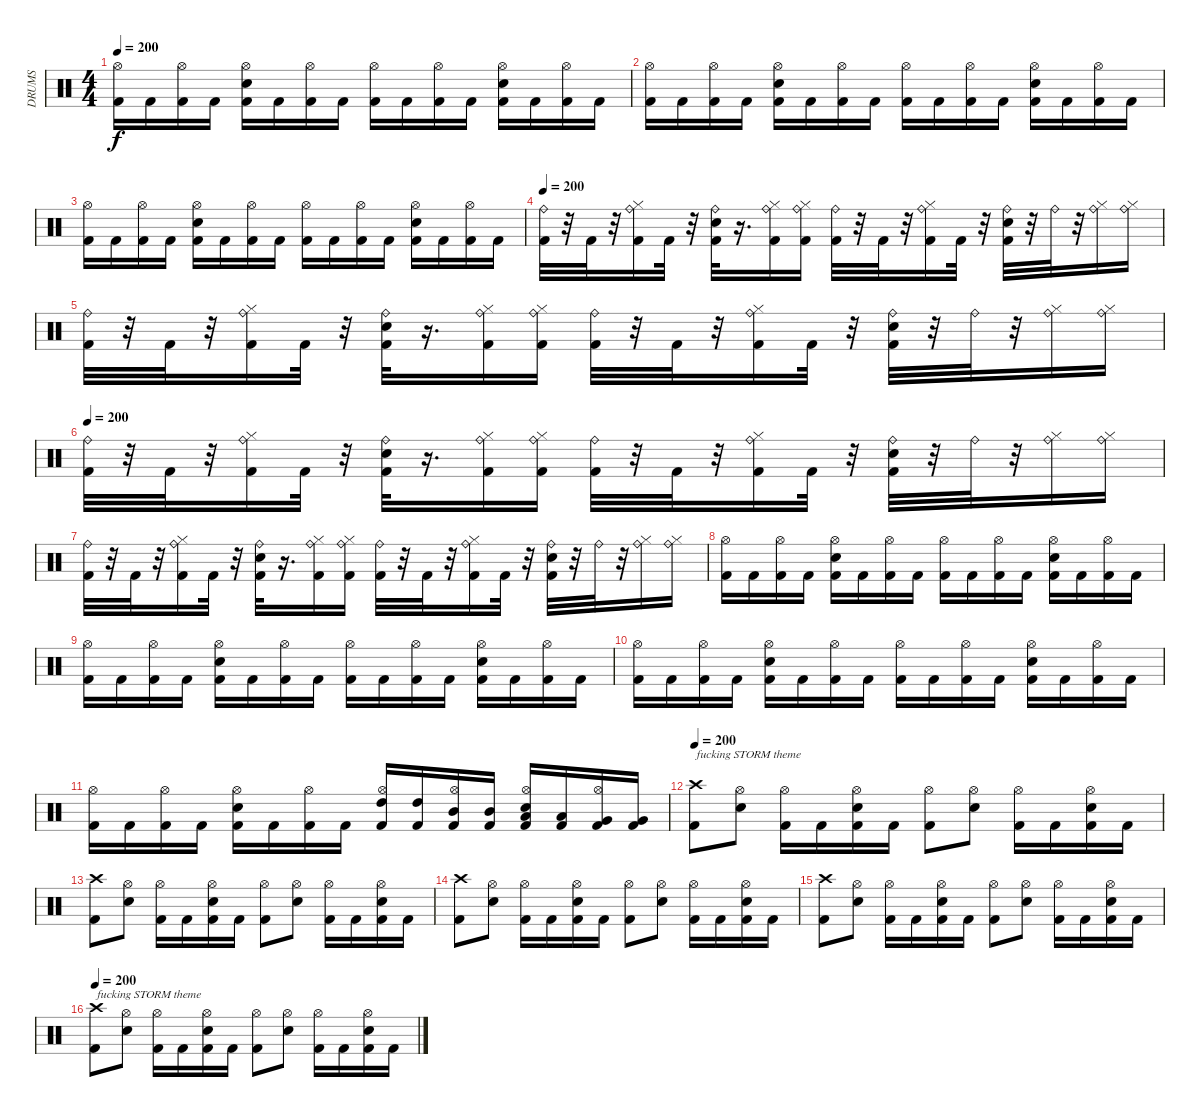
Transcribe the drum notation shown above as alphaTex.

\track ("DRUMS" "DRUMS") {instrument percussion}
\staff {score}
\articulation defaults
\ts (4 4)
\tempo 200
\clef neutral
\ks c
("Kick (hit) 2" "Hi-Hat (open)").16{dy f} "Kick (hit) 2".16 ("Kick (hit) 2" "Hi-Hat (open)").16 "Kick (hit) 2".16 ("Kick (hit) 2" "Snare (hit) 2" "Hi-Hat (open)").16 "Kick (hit) 2".16 ("Kick (hit) 2" "Hi-Hat (open)").16 "Kick (hit) 2".16 ("Kick (hit) 2" "Hi-Hat (open)").16 "Kick (hit) 2".16 ("Kick (hit) 2" "Hi-Hat (open)").16 "Kick (hit) 2".16 ("Kick (hit) 2" "Snare (hit) 2" "Hi-Hat (open)").16 "Kick (hit) 2".16 ("Kick (hit) 2" "Hi-Hat (open)").16 "Kick (hit) 2".16 |
("Kick (hit) 2" "Hi-Hat (open)").16 "Kick (hit) 2".16 ("Kick (hit) 2" "Hi-Hat (open)").16 "Kick (hit) 2".16 ("Kick (hit) 2" "Snare (hit) 2" "Hi-Hat (open)").16 "Kick (hit) 2".16 ("Kick (hit) 2" "Hi-Hat (open)").16 "Kick (hit) 2".16 ("Kick (hit) 2" "Hi-Hat (open)").16 "Kick (hit) 2".16 ("Kick (hit) 2" "Hi-Hat (open)").16 "Kick (hit) 2".16 ("Kick (hit) 2" "Snare (hit) 2" "Hi-Hat (open)").16 "Kick (hit) 2".16 ("Kick (hit) 2" "Hi-Hat (open)").16 "Kick (hit) 2".16 |
("Kick (hit) 2" "Hi-Hat (open)").16 "Kick (hit) 2".16 ("Kick (hit) 2" "Hi-Hat (open)").16 "Kick (hit) 2".16 ("Kick (hit) 2" "Snare (hit) 2" "Hi-Hat (open)").16 "Kick (hit) 2".16 ("Kick (hit) 2" "Hi-Hat (open)").16 "Kick (hit) 2".16 ("Kick (hit) 2" "Hi-Hat (open)").16 "Kick (hit) 2".16 ("Kick (hit) 2" "Hi-Hat (open)").16 "Kick (hit) 2".16 ("Kick (hit) 2" "Snare (hit) 2" "Hi-Hat (open)").16 "Kick (hit) 2".16 ("Kick (hit) 2" "Hi-Hat (open)").16 "Kick (hit) 2".16 |
\tempo 200
("Kick (hit) 2" "Ride (bell)").32 r.32 "Kick (hit) 2".32 r.32 ("Hi-Hat (closed)" "Kick (hit) 2" "Ride (bell)").16 "Kick (hit) 2".32 r.32 ("Snare (hit) 2" "Ride (bell)" "Kick (hit) 2").32 r.16{d} ("Hi-Hat (closed)" "Kick (hit) 2" "Ride (bell)").16 ("Hi-Hat (closed)" "Kick (hit) 2" "Ride (bell)").16 ("Ride (bell)" "Kick (hit) 2").32 r.32 "Kick (hit) 2".32 r.32 ("Hi-Hat (closed)" "Kick (hit) 2" "Ride (bell)").16 "Kick (hit) 2".32 r.32 ("Ride (bell)" "Snare (hit) 2" "Kick (hit) 2").32 r.32 "Ride (bell)".32 r.32 ("Hi-Hat (closed)" "Ride (bell)").16 ("Hi-Hat (closed)" "Ride (bell)").16 |
("Kick (hit) 2" "Ride (bell)").32 r.32 "Kick (hit) 2".32 r.32 ("Hi-Hat (closed)" "Kick (hit) 2" "Ride (bell)").16 "Kick (hit) 2".32 r.32 ("Snare (hit) 2" "Ride (bell)" "Kick (hit) 2").32 r.16{d} ("Hi-Hat (closed)" "Kick (hit) 2" "Ride (bell)").16 ("Hi-Hat (closed)" "Kick (hit) 2" "Ride (bell)").16 ("Ride (bell)" "Kick (hit) 2").32 r.32 "Kick (hit) 2".32 r.32 ("Hi-Hat (closed)" "Kick (hit) 2" "Ride (bell)").16 "Kick (hit) 2".32 r.32 ("Ride (bell)" "Snare (hit) 2" "Kick (hit) 2").32 r.32 "Ride (bell)".32 r.32 ("Hi-Hat (closed)" "Ride (bell)").16 ("Hi-Hat (closed)" "Ride (bell)").16 |
\tempo 200
("Kick (hit) 2" "Ride (bell)").32 r.32 "Kick (hit) 2".32 r.32 ("Hi-Hat (closed)" "Kick (hit) 2" "Ride (bell)").16 "Kick (hit) 2".32 r.32 ("Snare (hit) 2" "Ride (bell)" "Kick (hit) 2").32 r.16{d} ("Hi-Hat (closed)" "Kick (hit) 2" "Ride (bell)").16 ("Hi-Hat (closed)" "Kick (hit) 2" "Ride (bell)").16 ("Ride (bell)" "Kick (hit) 2").32 r.32 "Kick (hit) 2".32 r.32 ("Hi-Hat (closed)" "Kick (hit) 2" "Ride (bell)").16 "Kick (hit) 2".32 r.32 ("Ride (bell)" "Snare (hit) 2" "Kick (hit) 2").32 r.32 "Ride (bell)".32 r.32 ("Hi-Hat (closed)" "Ride (bell)").16 ("Hi-Hat (closed)" "Ride (bell)").16 |
("Kick (hit) 2" "Ride (bell)").32 r.32 "Kick (hit) 2".32 r.32 ("Hi-Hat (closed)" "Kick (hit) 2" "Ride (bell)").16 "Kick (hit) 2".32 r.32 ("Snare (hit) 2" "Ride (bell)" "Kick (hit) 2").32 r.16{d} ("Hi-Hat (closed)" "Kick (hit) 2" "Ride (bell)").16 ("Hi-Hat (closed)" "Kick (hit) 2" "Ride (bell)").16 ("Ride (bell)" "Kick (hit) 2").32 r.32 "Kick (hit) 2".32 r.32 ("Hi-Hat (closed)" "Kick (hit) 2" "Ride (bell)").16 "Kick (hit) 2".32 r.32 ("Ride (bell)" "Snare (hit) 2" "Kick (hit) 2").32 r.32 "Ride (bell)".32 r.32 ("Hi-Hat (closed)" "Ride (bell)").16 ("Hi-Hat (closed)" "Ride (bell)").16 |
("Kick (hit) 2" "Hi-Hat (open)").16 "Kick (hit) 2".16 ("Kick (hit) 2" "Hi-Hat (open)").16 "Kick (hit) 2".16 ("Kick (hit) 2" "Snare (hit) 2" "Hi-Hat (open)").16 "Kick (hit) 2".16 ("Kick (hit) 2" "Hi-Hat (open)").16 "Kick (hit) 2".16 ("Kick (hit) 2" "Hi-Hat (open)").16 "Kick (hit) 2".16 ("Kick (hit) 2" "Hi-Hat (open)").16 "Kick (hit) 2".16 ("Kick (hit) 2" "Snare (hit) 2" "Hi-Hat (open)").16 "Kick (hit) 2".16 ("Kick (hit) 2" "Hi-Hat (open)").16 "Kick (hit) 2".16 |
("Kick (hit) 2" "Hi-Hat (open)").16 "Kick (hit) 2".16 ("Kick (hit) 2" "Hi-Hat (open)").16 "Kick (hit) 2".16 ("Kick (hit) 2" "Snare (hit) 2" "Hi-Hat (open)").16 "Kick (hit) 2".16 ("Kick (hit) 2" "Hi-Hat (open)").16 "Kick (hit) 2".16 ("Kick (hit) 2" "Hi-Hat (open)").16 "Kick (hit) 2".16 ("Kick (hit) 2" "Hi-Hat (open)").16 "Kick (hit) 2".16 ("Kick (hit) 2" "Snare (hit) 2" "Hi-Hat (open)").16 "Kick (hit) 2".16 ("Kick (hit) 2" "Hi-Hat (open)").16 "Kick (hit) 2".16 |
("Kick (hit) 2" "Hi-Hat (open)").16 "Kick (hit) 2".16 ("Kick (hit) 2" "Hi-Hat (open)").16 "Kick (hit) 2".16 ("Kick (hit) 2" "Snare (hit) 2" "Hi-Hat (open)").16 "Kick (hit) 2".16 ("Kick (hit) 2" "Hi-Hat (open)").16 "Kick (hit) 2".16 ("Kick (hit) 2" "Hi-Hat (open)").16 "Kick (hit) 2".16 ("Kick (hit) 2" "Hi-Hat (open)").16 "Kick (hit) 2".16 ("Kick (hit) 2" "Snare (hit) 2" "Hi-Hat (open)").16 "Kick (hit) 2".16 ("Kick (hit) 2" "Hi-Hat (open)").16 "Kick (hit) 2".16 |
("Kick (hit) 2" "Hi-Hat (open)").16 "Kick (hit) 2".16 ("Kick (hit) 2" "Hi-Hat (open)").16 "Kick (hit) 2".16 ("Kick (hit) 2" "Snare (hit) 2" "Hi-Hat (open)").16 "Kick (hit) 2".16 ("Kick (hit) 2" "Hi-Hat (open)").16 "Kick (hit) 2".16 ("Kick (hit) 2" "Hi-Hat (open)" "High Tom (hit)").16 ("Kick (hit) 2" "High Tom (hit)").16 ("Kick (hit) 2" "Hi-Hat (open)" "Mid Tom (hit)").16 ("Kick (hit) 2" "Mid Tom (hit)").16 ("Kick (hit) 2" "Snare (hit) 2" "Hi-Hat (open)" "Low Tom (hit)").16 ("Kick (hit) 2" "Low Tom (hit)").16 ("Kick (hit) 2" "Hi-Hat (open)" "Very Low Tom (hit)").16 ("Kick (hit) 2" "Very Low Tom (hit)").16 |
\tempo 200
("Kick (hit) 2" "Crash high (hit)").8{txt "fucking STORM theme"} ("Snare (hit) 2" "Hi-Hat (open)").8 ("Kick (hit) 2" "Hi-Hat (open)").16 "Kick (hit) 2".16 ("Kick (hit) 2" "Snare (hit) 2" "Hi-Hat (open)").16 "Kick (hit) 2".16 ("Kick (hit) 2" "Hi-Hat (open)").8 ("Snare (hit) 2" "Hi-Hat (open)").8 ("Kick (hit) 2" "Hi-Hat (open)").16 "Kick (hit) 2".16 ("Kick (hit) 2" "Snare (hit) 2" "Hi-Hat (open)").16 "Kick (hit) 2".16 |
("Kick (hit) 2" "Crash high (hit)").8 ("Snare (hit) 2" "Hi-Hat (open)").8 ("Kick (hit) 2" "Hi-Hat (open)").16 "Kick (hit) 2".16 ("Kick (hit) 2" "Snare (hit) 2" "Hi-Hat (open)").16 "Kick (hit) 2".16 ("Kick (hit) 2" "Hi-Hat (open)").8 ("Snare (hit) 2" "Hi-Hat (open)").8 ("Kick (hit) 2" "Hi-Hat (open)").16 "Kick (hit) 2".16 ("Kick (hit) 2" "Snare (hit) 2" "Hi-Hat (open)").16 "Kick (hit) 2".16 |
("Kick (hit) 2" "Crash high (hit)").8 ("Snare (hit) 2" "Hi-Hat (open)").8 ("Kick (hit) 2" "Hi-Hat (open)").16 "Kick (hit) 2".16 ("Kick (hit) 2" "Snare (hit) 2" "Hi-Hat (open)").16 "Kick (hit) 2".16 ("Kick (hit) 2" "Hi-Hat (open)").8 ("Snare (hit) 2" "Hi-Hat (open)").8 ("Kick (hit) 2" "Hi-Hat (open)").16 "Kick (hit) 2".16 ("Kick (hit) 2" "Snare (hit) 2" "Hi-Hat (open)").16 "Kick (hit) 2".16 |
("Kick (hit) 2" "Crash high (hit)").8 ("Snare (hit) 2" "Hi-Hat (open)").8 ("Kick (hit) 2" "Hi-Hat (open)").16 "Kick (hit) 2".16 ("Kick (hit) 2" "Snare (hit) 2" "Hi-Hat (open)").16 "Kick (hit) 2".16 ("Kick (hit) 2" "Hi-Hat (open)").8 ("Snare (hit) 2" "Hi-Hat (open)").8 ("Kick (hit) 2" "Hi-Hat (open)").16 "Kick (hit) 2".16 ("Kick (hit) 2" "Snare (hit) 2" "Hi-Hat (open)").16 "Kick (hit) 2".16 |
\tempo 200
("Kick (hit) 2" "Crash high (hit)").8{txt "fucking STORM theme"} ("Snare (hit) 2" "Hi-Hat (open)").8 ("Kick (hit) 2" "Hi-Hat (open)").16 "Kick (hit) 2".16 ("Kick (hit) 2" "Snare (hit) 2" "Hi-Hat (open)").16 "Kick (hit) 2".16 ("Kick (hit) 2" "Hi-Hat (open)").8 ("Snare (hit) 2" "Hi-Hat (open)").8 ("Kick (hit) 2" "Hi-Hat (open)").16 "Kick (hit) 2".16 ("Kick (hit) 2" "Snare (hit) 2" "Hi-Hat (open)").16 "Kick (hit) 2".16
